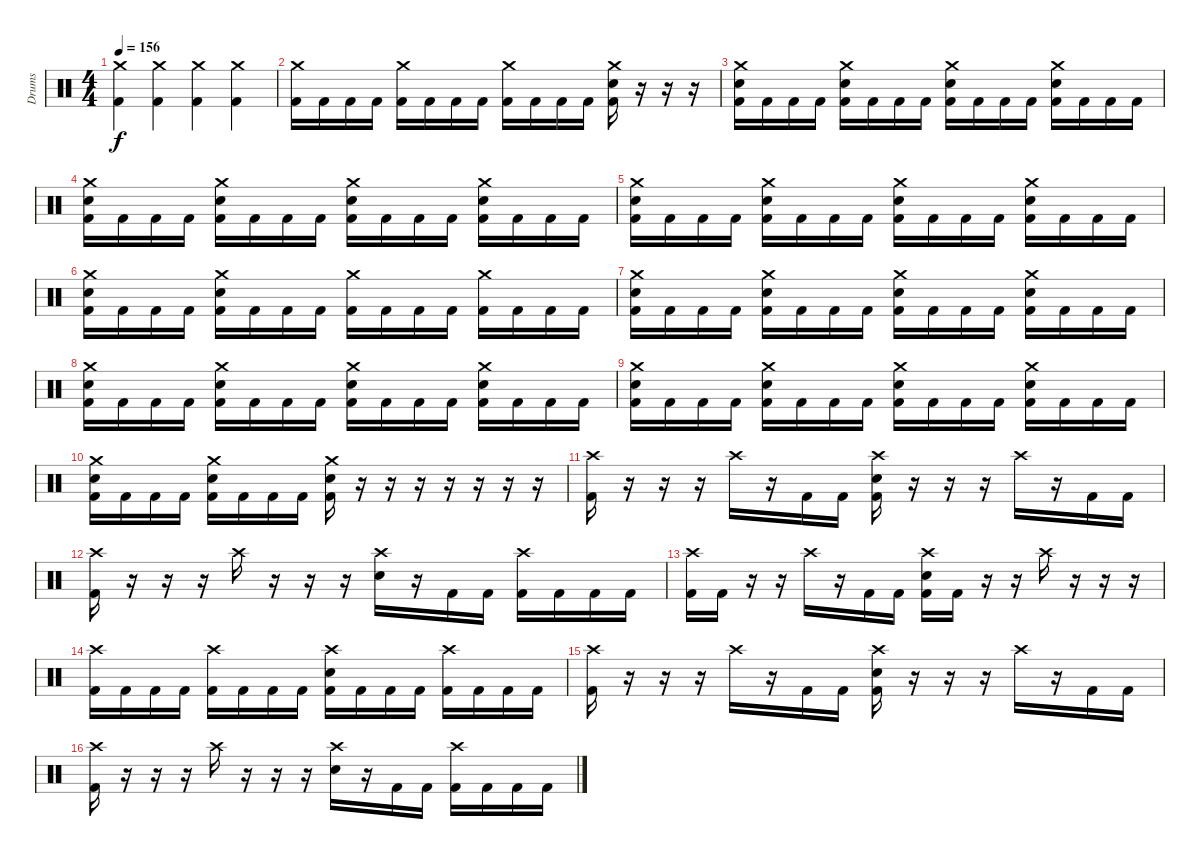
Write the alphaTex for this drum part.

\track ("Drums" "Drums") {instrument percussion}
\staff {score}
\articulation defaults
\ts (4 4)
\tempo 156
\clef neutral
\ks c
("Crash medium (hit)" "Kick (hit) 2").4{dy f} ("Crash medium (hit)" "Kick (hit) 2").4 ("Crash medium (hit)" "Kick (hit) 2").4 ("Crash medium (hit)" "Kick (hit) 2").4 |
("Crash medium (hit)" "Kick (hit) 2").16 "Kick (hit) 2".16 "Kick (hit) 2".16 "Kick (hit) 2".16 ("Crash medium (hit)" "Kick (hit) 2").16 "Kick (hit) 2".16 "Kick (hit) 2".16 "Kick (hit) 2".16 ("Crash medium (hit)" "Kick (hit) 2").16 "Kick (hit) 2".16 "Kick (hit) 2".16 "Kick (hit) 2".16 ("Crash medium (hit)" "Electric Snare (hit)" "Kick (hit) 2").16 r.16 r.16 r.16 |
("Crash medium (hit)" "Electric Snare (hit)" "Kick (hit) 2").16 "Kick (hit) 2".16 "Kick (hit) 2".16 "Kick (hit) 2".16 ("Crash medium (hit)" "Electric Snare (hit)" "Kick (hit) 2").16 "Kick (hit) 2".16 "Kick (hit) 2".16 "Kick (hit) 2".16 ("Crash medium (hit)" "Electric Snare (hit)" "Kick (hit) 2").16 "Kick (hit) 2".16 "Kick (hit) 2".16 "Kick (hit) 2".16 ("Crash medium (hit)" "Electric Snare (hit)" "Kick (hit) 2").16 "Kick (hit) 2".16 "Kick (hit) 2".16 "Kick (hit) 2".16 |
("Crash medium (hit)" "Electric Snare (hit)" "Kick (hit) 2").16 "Kick (hit) 2".16 "Kick (hit) 2".16 "Kick (hit) 2".16 ("Crash medium (hit)" "Electric Snare (hit)" "Kick (hit) 2").16 "Kick (hit) 2".16 "Kick (hit) 2".16 "Kick (hit) 2".16 ("Crash medium (hit)" "Electric Snare (hit)" "Kick (hit) 2").16 "Kick (hit) 2".16 "Kick (hit) 2".16 "Kick (hit) 2".16 ("Crash medium (hit)" "Electric Snare (hit)" "Kick (hit) 2").16 "Kick (hit) 2".16 "Kick (hit) 2".16 "Kick (hit) 2".16 |
("Crash medium (hit)" "Electric Snare (hit)" "Kick (hit) 2").16 "Kick (hit) 2".16 "Kick (hit) 2".16 "Kick (hit) 2".16 ("Crash medium (hit)" "Electric Snare (hit)" "Kick (hit) 2").16 "Kick (hit) 2".16 "Kick (hit) 2".16 "Kick (hit) 2".16 ("Crash medium (hit)" "Electric Snare (hit)" "Kick (hit) 2").16 "Kick (hit) 2".16 "Kick (hit) 2".16 "Kick (hit) 2".16 ("Crash medium (hit)" "Electric Snare (hit)" "Kick (hit) 2").16 "Kick (hit) 2".16 "Kick (hit) 2".16 "Kick (hit) 2".16 |
("Crash medium (hit)" "Electric Snare (hit)" "Kick (hit) 2").16 "Kick (hit) 2".16 "Kick (hit) 2".16 "Kick (hit) 2".16 ("Crash medium (hit)" "Electric Snare (hit)" "Kick (hit) 2").16 "Kick (hit) 2".16 "Kick (hit) 2".16 "Kick (hit) 2".16 ("Crash medium (hit)" "Kick (hit) 2").16 "Kick (hit) 2".16 "Kick (hit) 2".16 "Kick (hit) 2".16 ("Crash medium (hit)" "Kick (hit) 2").16 "Kick (hit) 2".16 "Kick (hit) 2".16 "Kick (hit) 2".16 |
("Crash medium (hit)" "Electric Snare (hit)" "Kick (hit) 2").16 "Kick (hit) 2".16 "Kick (hit) 2".16 "Kick (hit) 2".16 ("Crash medium (hit)" "Electric Snare (hit)" "Kick (hit) 2").16 "Kick (hit) 2".16 "Kick (hit) 2".16 "Kick (hit) 2".16 ("Crash medium (hit)" "Electric Snare (hit)" "Kick (hit) 2").16 "Kick (hit) 2".16 "Kick (hit) 2".16 "Kick (hit) 2".16 ("Crash medium (hit)" "Electric Snare (hit)" "Kick (hit) 2").16 "Kick (hit) 2".16 "Kick (hit) 2".16 "Kick (hit) 2".16 |
("Crash medium (hit)" "Electric Snare (hit)" "Kick (hit) 2").16 "Kick (hit) 2".16 "Kick (hit) 2".16 "Kick (hit) 2".16 ("Crash medium (hit)" "Electric Snare (hit)" "Kick (hit) 2").16 "Kick (hit) 2".16 "Kick (hit) 2".16 "Kick (hit) 2".16 ("Crash medium (hit)" "Electric Snare (hit)" "Kick (hit) 2").16 "Kick (hit) 2".16 "Kick (hit) 2".16 "Kick (hit) 2".16 ("Crash medium (hit)" "Electric Snare (hit)" "Kick (hit) 2").16 "Kick (hit) 2".16 "Kick (hit) 2".16 "Kick (hit) 2".16 |
("Crash medium (hit)" "Electric Snare (hit)" "Kick (hit) 2").16 "Kick (hit) 2".16 "Kick (hit) 2".16 "Kick (hit) 2".16 ("Crash medium (hit)" "Electric Snare (hit)" "Kick (hit) 2").16 "Kick (hit) 2".16 "Kick (hit) 2".16 "Kick (hit) 2".16 ("Crash medium (hit)" "Electric Snare (hit)" "Kick (hit) 2").16 "Kick (hit) 2".16 "Kick (hit) 2".16 "Kick (hit) 2".16 ("Crash medium (hit)" "Electric Snare (hit)" "Kick (hit) 2").16 "Kick (hit) 2".16 "Kick (hit) 2".16 "Kick (hit) 2".16 |
("Crash medium (hit)" "Electric Snare (hit)" "Kick (hit) 2").16 "Kick (hit) 2".16 "Kick (hit) 2".16 "Kick (hit) 2".16 ("Crash medium (hit)" "Electric Snare (hit)" "Kick (hit) 2").16 "Kick (hit) 2".16 "Kick (hit) 2".16 "Kick (hit) 2".16 ("Crash medium (hit)" "Electric Snare (hit)" "Kick (hit) 2").16 r.16 r.16 r.16 r.16 r.16 r.16 r.16 |
("Crash high (hit)" "Kick (hit) 2").16 r.16 r.16 r.16 "Crash high (hit)".16 r.16 "Kick (hit) 2".16 "Kick (hit) 2".16 ("Crash high (hit)" "Electric Snare (hit)" "Kick (hit) 2").16 r.16 r.16 r.16 "Crash high (hit)".16 r.16 "Kick (hit) 2".16 "Kick (hit) 2".16 |
("Crash high (hit)" "Kick (hit) 2").16 r.16 r.16 r.16 "Crash high (hit)".16 r.16 r.16 r.16 ("Crash high (hit)" "Electric Snare (hit)").16 r.16 "Kick (hit) 2".16 "Kick (hit) 2".16 ("Crash high (hit)" "Kick (hit) 2").16 "Kick (hit) 2".16 "Kick (hit) 2".16 "Kick (hit) 2".16 |
("Crash high (hit)" "Kick (hit) 2").16 "Kick (hit) 2".16 r.16 r.16 "Crash high (hit)".16 r.16 "Kick (hit) 2".16 "Kick (hit) 2".16 ("Crash high (hit)" "Electric Snare (hit)" "Kick (hit) 2").16 "Kick (hit) 2".16 r.16 r.16 "Crash high (hit)".16 r.16 r.16 r.16 |
("Crash high (hit)" "Kick (hit) 2").16 "Kick (hit) 2".16 "Kick (hit) 2".16 "Kick (hit) 2".16 ("Crash high (hit)" "Kick (hit) 2").16 "Kick (hit) 2".16 "Kick (hit) 2".16 "Kick (hit) 2".16 ("Crash high (hit)" "Electric Snare (hit)" "Kick (hit) 2").16 "Kick (hit) 2".16 "Kick (hit) 2".16 "Kick (hit) 2".16 ("Crash high (hit)" "Kick (hit) 2").16 "Kick (hit) 2".16 "Kick (hit) 2".16 "Kick (hit) 2".16 |
("Crash high (hit)" "Kick (hit) 2").16 r.16 r.16 r.16 "Crash high (hit)".16 r.16 "Kick (hit) 2".16 "Kick (hit) 2".16 ("Crash high (hit)" "Electric Snare (hit)" "Kick (hit) 2").16 r.16 r.16 r.16 "Crash high (hit)".16 r.16 "Kick (hit) 2".16 "Kick (hit) 2".16 |
("Crash high (hit)" "Kick (hit) 2").16 r.16 r.16 r.16 "Crash high (hit)".16 r.16 r.16 r.16 ("Crash high (hit)" "Electric Snare (hit)").16 r.16 "Kick (hit) 2".16 "Kick (hit) 2".16 ("Crash high (hit)" "Kick (hit) 2").16 "Kick (hit) 2".16 "Kick (hit) 2".16 "Kick (hit) 2".16
